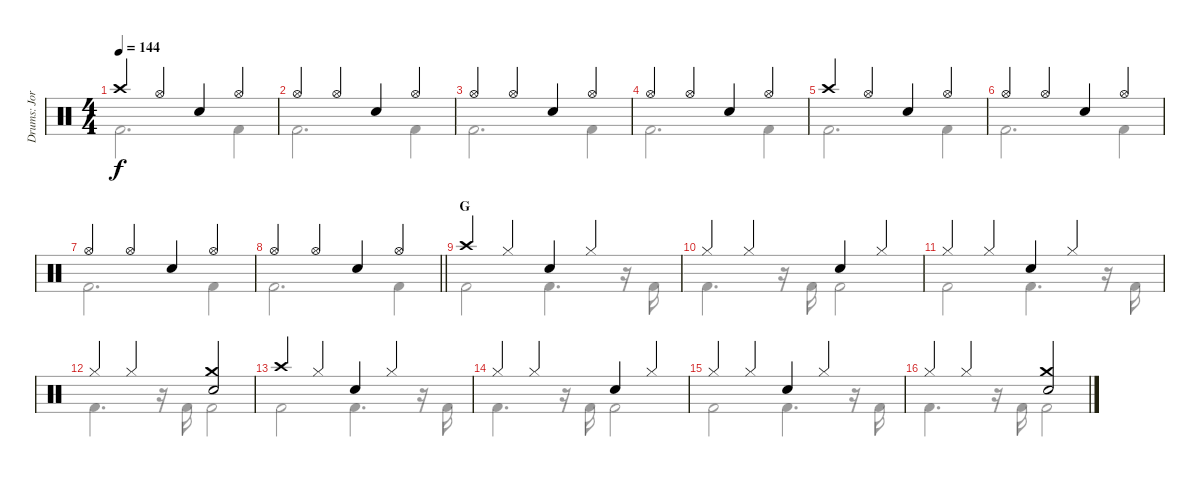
\track ("Drums: Jorg" "Drums: Jor") {instrument percussion}
\staff {score}
\articulation defaults
\voice
\ts (4 4)
\tempo 144
\clef neutral
\ks c "Crash high (hit)".4{dy f} "Hi-Hat (open)".4 "Snare (hit) 2".4 "Hi-Hat (open)".4
|
"Hi-Hat (open)".4 "Hi-Hat (open)".4 "Snare (hit) 2".4 "Hi-Hat (open)".4 |
"Hi-Hat (open)".4 "Hi-Hat (open)".4 "Snare (hit) 2".4 "Hi-Hat (open)".4 |
"Hi-Hat (open)".4 "Hi-Hat (open)".4 "Snare (hit) 2".4 "Hi-Hat (open)".4 |
"Crash high (hit)".4 "Hi-Hat (open)".4 "Snare (hit) 2".4 "Hi-Hat (open)".4 |
"Hi-Hat (open)".4 "Hi-Hat (open)".4 "Snare (hit) 2".4 "Hi-Hat (open)".4 |
"Hi-Hat (open)".4 "Hi-Hat (open)".4 "Snare (hit) 2".4 "Hi-Hat (open)".4 |
\barLineRight lightlight "Hi-Hat (open)".4 "Hi-Hat (open)".4 "Snare (hit) 2".4 "Hi-Hat (open)".4
|
\section ("" "G")
"Crash high (hit)".4 "Hi-Hat (closed)".4 "Snare (hit) 2".4 "Hi-Hat (closed)".4 |
"Hi-Hat (closed)".4 "Hi-Hat (closed)".4 "Snare (hit) 2".4 "Hi-Hat (closed)".4 |
"Hi-Hat (closed)".4 "Hi-Hat (closed)".4 "Snare (hit) 2".4 "Hi-Hat (closed)".4 |
"Hi-Hat (closed)".4 "Hi-Hat (closed)".4 ("Crash medium (hit)" "Snare (hit) 2").2 |
"Crash high (hit)".4 "Hi-Hat (closed)".4 "Snare (hit) 2".4 "Hi-Hat (closed)".4 |
"Hi-Hat (closed)".4 "Hi-Hat (closed)".4 "Snare (hit) 2".4 "Hi-Hat (closed)".4 |
"Hi-Hat (closed)".4 "Hi-Hat (closed)".4 "Snare (hit) 2".4 "Hi-Hat (closed)".4 |
"Hi-Hat (closed)".4 "Hi-Hat (closed)".4 ("Crash medium (hit)" "Snare (hit) 2").2
\voice
\clef neutral
\ottava regular
\simile none
\ks c "Kick (hit) 2".2{d dy f} "Kick (hit) 2".4
|
"Kick (hit) 2".2{d} "Kick (hit) 2".4 |
"Kick (hit) 2".2{d} "Kick (hit) 2".4 |
"Kick (hit) 2".2{d} "Kick (hit) 2".4 |
"Kick (hit) 2".2{d} "Kick (hit) 2".4 |
"Kick (hit) 2".2{d} "Kick (hit) 2".4 |
"Kick (hit) 2".2{d} "Kick (hit) 2".4 |
\barLineRight lightlight "Kick (hit) 2".2{d} "Kick (hit) 2".4
|
"Kick (hit) 2".2 "Kick (hit) 2".4{d} r.16 "Kick (hit) 2".16 |
"Kick (hit) 2".4{d} r.16 "Kick (hit) 2".16 "Kick (hit) 2".2 |
"Kick (hit) 2".2 "Kick (hit) 2".4{d} r.16 "Kick (hit) 2".16 |
"Kick (hit) 2".4{d} r.16 "Kick (hit) 2".16 "Kick (hit) 2".2 |
"Kick (hit) 2".2 "Kick (hit) 2".4{d} r.16 "Kick (hit) 2".16 |
"Kick (hit) 2".4{d} r.16 "Kick (hit) 2".16 "Kick (hit) 2".2 |
"Kick (hit) 2".2 "Kick (hit) 2".4{d} r.16 "Kick (hit) 2".16 |
"Kick (hit) 2".4{d} r.16 "Kick (hit) 2".16 "Kick (hit) 2".2
